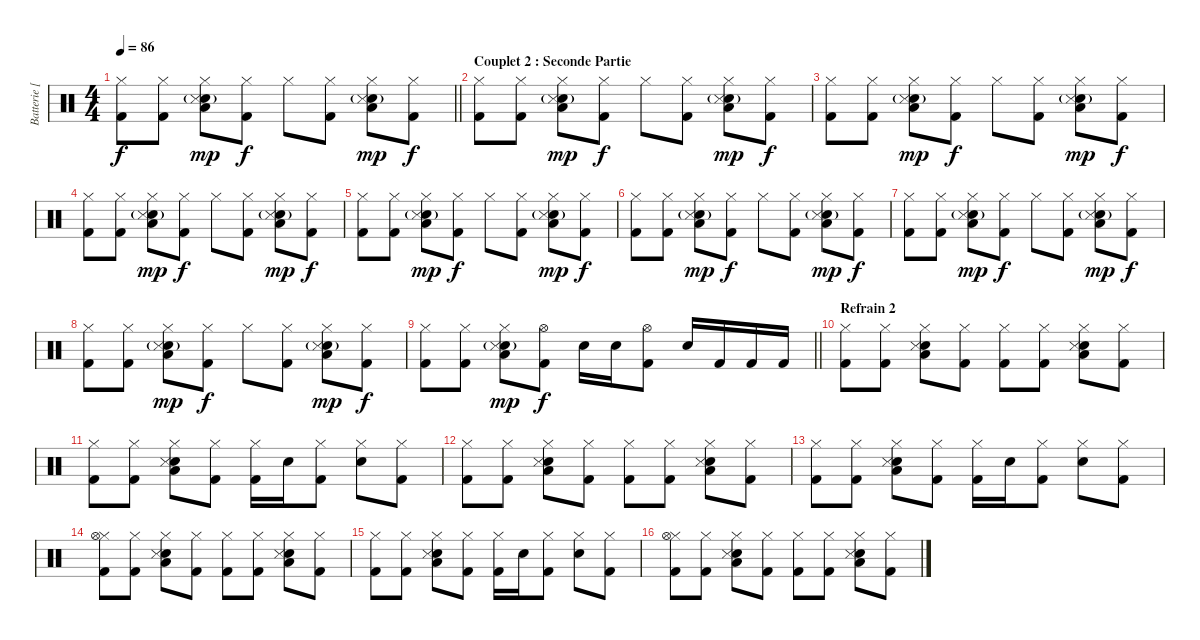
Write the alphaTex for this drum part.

\track ("Batterie [Dominic Howard]" "Batterie [") {instrument percussion}
\staff {score}
\articulation defaults
\ts (4 4)
\tempo 86
\clef neutral
\barLineRight lightlight
\ks c
("Hi-Hat (closed)" "Kick (hit) 2").8{dy f} ("Hi-Hat (closed)" "Kick (hit) 2").8 ("Hi-Hat (closed)" "Low Tom (hit)" "Electric Snare (hit)"{g} "Snare (side stick) 3").8{dy mp} ("Hi-Hat (closed)" "Kick (hit) 2").8{dy f} "Hi-Hat (closed)".8 ("Hi-Hat (closed)" "Kick (hit) 2").8 ("Hi-Hat (closed)" "Low Tom (hit)" "Electric Snare (hit)"{g} "Snare (side stick) 3").8{dy mp} ("Hi-Hat (closed)" "Kick (hit) 2").8{dy f} |
\section ("" "Couplet 2 : Seconde Partie")
("Hi-Hat (closed)" "Kick (hit) 2").8 ("Hi-Hat (closed)" "Kick (hit) 2").8 ("Hi-Hat (closed)" "Low Tom (hit)" "Electric Snare (hit)"{g} "Snare (side stick) 3").8{dy mp} ("Hi-Hat (closed)" "Kick (hit) 2").8{dy f} "Hi-Hat (closed)".8 ("Hi-Hat (closed)" "Kick (hit) 2").8 ("Hi-Hat (closed)" "Low Tom (hit)" "Electric Snare (hit)"{g} "Snare (side stick) 3").8{dy mp} ("Hi-Hat (closed)" "Kick (hit) 2").8{dy f} |
("Hi-Hat (closed)" "Kick (hit) 2").8 ("Hi-Hat (closed)" "Kick (hit) 2").8 ("Hi-Hat (closed)" "Low Tom (hit)" "Electric Snare (hit)"{g} "Snare (side stick) 3").8{dy mp} ("Hi-Hat (closed)" "Kick (hit) 2").8{dy f} "Hi-Hat (closed)".8 ("Hi-Hat (closed)" "Kick (hit) 2").8 ("Hi-Hat (closed)" "Low Tom (hit)" "Electric Snare (hit)"{g} "Snare (side stick) 3").8{dy mp} ("Hi-Hat (closed)" "Kick (hit) 2").8{dy f} |
("Hi-Hat (closed)" "Kick (hit) 2").8 ("Hi-Hat (closed)" "Kick (hit) 2").8 ("Hi-Hat (closed)" "Low Tom (hit)" "Electric Snare (hit)"{g} "Snare (side stick) 3").8{dy mp} ("Hi-Hat (closed)" "Kick (hit) 2").8{dy f} "Hi-Hat (closed)".8 ("Hi-Hat (closed)" "Kick (hit) 2").8 ("Hi-Hat (closed)" "Low Tom (hit)" "Electric Snare (hit)"{g} "Snare (side stick) 3").8{dy mp} ("Hi-Hat (closed)" "Kick (hit) 2").8{dy f} |
("Hi-Hat (closed)" "Kick (hit) 2").8 ("Hi-Hat (closed)" "Kick (hit) 2").8 ("Hi-Hat (closed)" "Low Tom (hit)" "Electric Snare (hit)"{g} "Snare (side stick) 3").8{dy mp} ("Hi-Hat (closed)" "Kick (hit) 2").8{dy f} "Hi-Hat (closed)".8 ("Hi-Hat (closed)" "Kick (hit) 2").8 ("Hi-Hat (closed)" "Low Tom (hit)" "Electric Snare (hit)"{g} "Snare (side stick) 3").8{dy mp} ("Hi-Hat (closed)" "Kick (hit) 2").8{dy f} |
("Hi-Hat (closed)" "Kick (hit) 2").8 ("Hi-Hat (closed)" "Kick (hit) 2").8 ("Hi-Hat (closed)" "Low Tom (hit)" "Electric Snare (hit)"{g} "Snare (side stick) 3").8{dy mp} ("Hi-Hat (closed)" "Kick (hit) 2").8{dy f} "Hi-Hat (closed)".8 ("Hi-Hat (closed)" "Kick (hit) 2").8 ("Hi-Hat (closed)" "Low Tom (hit)" "Electric Snare (hit)"{g} "Snare (side stick) 3").8{dy mp} ("Hi-Hat (closed)" "Kick (hit) 2").8{dy f} |
("Hi-Hat (closed)" "Kick (hit) 2").8 ("Hi-Hat (closed)" "Kick (hit) 2").8 ("Hi-Hat (closed)" "Low Tom (hit)" "Electric Snare (hit)"{g} "Snare (side stick) 3").8{dy mp} ("Hi-Hat (closed)" "Kick (hit) 2").8{dy f} "Hi-Hat (closed)".8 ("Hi-Hat (closed)" "Kick (hit) 2").8 ("Hi-Hat (closed)" "Low Tom (hit)" "Electric Snare (hit)"{g} "Snare (side stick) 3").8{dy mp} ("Hi-Hat (closed)" "Kick (hit) 2").8{dy f} |
("Hi-Hat (closed)" "Kick (hit) 2").8 ("Hi-Hat (closed)" "Kick (hit) 2").8 ("Hi-Hat (closed)" "Low Tom (hit)" "Electric Snare (hit)"{g} "Snare (side stick) 3").8{dy mp} ("Hi-Hat (closed)" "Kick (hit) 2").8{dy f} "Hi-Hat (closed)".8 ("Hi-Hat (closed)" "Kick (hit) 2").8 ("Hi-Hat (closed)" "Low Tom (hit)" "Electric Snare (hit)"{g} "Snare (side stick) 3").8{dy mp} ("Hi-Hat (closed)" "Kick (hit) 2").8{dy f} |
\barLineRight lightlight
("Hi-Hat (closed)" "Kick (hit) 2").8 ("Hi-Hat (closed)" "Kick (hit) 2").8 ("Hi-Hat (closed)" "Low Tom (hit)" "Electric Snare (hit)"{g} "Snare (side stick) 3").8{dy mp} ("Hi-Hat (open)" "Kick (hit) 2").8{dy f} "Electric Snare (hit)".16 "Electric Snare (hit)".16 ("Hi-Hat (open)" "Kick (hit) 2").8 "Electric Snare (hit)".16 "Kick (hit) 2".16 "Kick (hit) 2".16 "Kick (hit) 2".16 |
\section ("" "Refrain 2")
("Hi-Hat (closed)" "Kick (hit) 2").8 ("Hi-Hat (closed)" "Kick (hit) 2").8 ("Hi-Hat (closed)" "Low Tom (hit)" "Electric Snare (hit)" "Snare (side stick) 3").8 ("Hi-Hat (closed)" "Kick (hit) 2").8 ("Hi-Hat (closed)" "Kick (hit) 2").8 ("Hi-Hat (closed)" "Kick (hit) 2").8 ("Hi-Hat (closed)" "Low Tom (hit)" "Electric Snare (hit)" "Snare (side stick) 3").8 ("Hi-Hat (closed)" "Kick (hit) 2").8 |
("Hi-Hat (closed)" "Kick (hit) 2").8 ("Hi-Hat (closed)" "Kick (hit) 2").8 ("Hi-Hat (closed)" "Low Tom (hit)" "Electric Snare (hit)" "Snare (side stick) 3").8 ("Hi-Hat (closed)" "Kick (hit) 2").8 ("Hi-Hat (closed)" "Kick (hit) 2").16 "Electric Snare (hit)".16 ("Hi-Hat (closed)" "Kick (hit) 2").8 ("Hi-Hat (closed)" "Electric Snare (hit)").8 ("Hi-Hat (closed)" "Kick (hit) 2").8 |
("Hi-Hat (closed)" "Kick (hit) 2").8 ("Hi-Hat (closed)" "Kick (hit) 2").8 ("Hi-Hat (closed)" "Low Tom (hit)" "Electric Snare (hit)" "Snare (side stick) 3").8 ("Hi-Hat (closed)" "Kick (hit) 2").8 ("Hi-Hat (closed)" "Kick (hit) 2").8 ("Hi-Hat (closed)" "Kick (hit) 2").8 ("Hi-Hat (closed)" "Low Tom (hit)" "Electric Snare (hit)" "Snare (side stick) 3").8 ("Hi-Hat (closed)" "Kick (hit) 2").8 |
("Hi-Hat (closed)" "Kick (hit) 2").8 ("Hi-Hat (closed)" "Kick (hit) 2").8 ("Hi-Hat (closed)" "Low Tom (hit)" "Electric Snare (hit)" "Snare (side stick) 3").8 ("Hi-Hat (closed)" "Kick (hit) 2").8 ("Hi-Hat (closed)" "Kick (hit) 2").16 "Electric Snare (hit)".16 ("Hi-Hat (closed)" "Kick (hit) 2").8 ("Hi-Hat (closed)" "Electric Snare (hit)").8 ("Hi-Hat (closed)" "Kick (hit) 2").8 |
("Hi-Hat (closed)" "Hi-Hat (open)" "Kick (hit) 2").8 ("Hi-Hat (closed)" "Kick (hit) 2").8 ("Hi-Hat (closed)" "Low Tom (hit)" "Electric Snare (hit)" "Snare (side stick) 3").8 ("Hi-Hat (closed)" "Kick (hit) 2").8 ("Hi-Hat (closed)" "Kick (hit) 2").8 ("Hi-Hat (closed)" "Kick (hit) 2").8 ("Hi-Hat (closed)" "Low Tom (hit)" "Electric Snare (hit)" "Snare (side stick) 3").8 ("Hi-Hat (closed)" "Kick (hit) 2").8 |
("Hi-Hat (closed)" "Kick (hit) 2").8 ("Hi-Hat (closed)" "Kick (hit) 2").8 ("Hi-Hat (closed)" "Low Tom (hit)" "Electric Snare (hit)" "Snare (side stick) 3").8 ("Hi-Hat (closed)" "Kick (hit) 2").8 ("Hi-Hat (closed)" "Kick (hit) 2").16 "Electric Snare (hit)".16 ("Hi-Hat (closed)" "Kick (hit) 2").8 ("Hi-Hat (closed)" "Electric Snare (hit)").8 ("Hi-Hat (closed)" "Kick (hit) 2").8 |
("Hi-Hat (closed)" "Hi-Hat (open)" "Kick (hit) 2").8 ("Hi-Hat (closed)" "Kick (hit) 2").8 ("Hi-Hat (closed)" "Low Tom (hit)" "Electric Snare (hit)" "Snare (side stick) 3").8 ("Hi-Hat (closed)" "Kick (hit) 2").8 ("Hi-Hat (closed)" "Kick (hit) 2").8 ("Hi-Hat (closed)" "Kick (hit) 2").8 ("Hi-Hat (closed)" "Low Tom (hit)" "Electric Snare (hit)" "Snare (side stick) 3").8 ("Hi-Hat (closed)" "Kick (hit) 2").8
